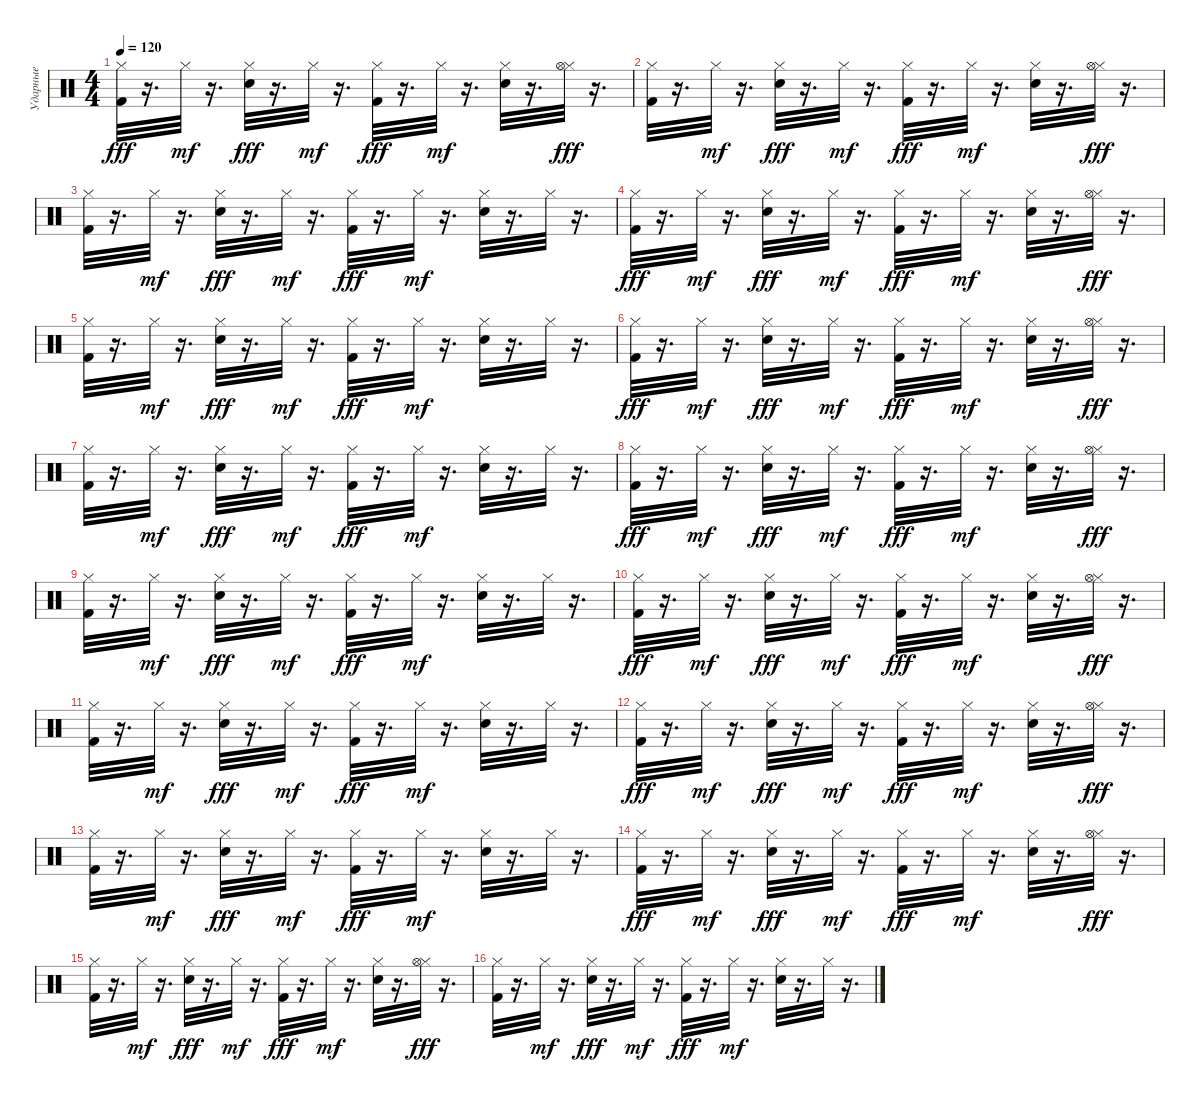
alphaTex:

\track ("Ударные" "Ударные") {instrument percussion}
\staff {score}
\articulation defaults
\ts (4 4)
\tempo 120
\clef neutral
\ks c
("Hi-Hat (closed)" "Kick (hit) 2").32{dy fff} r.16{d} "Hi-Hat (closed)".32{dy mf} r.16{d} ("Hi-Hat (closed)" "Snare (hit) 2").32{dy fff} r.16{d} "Hi-Hat (closed)".32{dy mf} r.16{d} ("Hi-Hat (closed)" "Kick (hit) 2").32{dy fff} r.16{d} "Hi-Hat (closed)".32{dy mf} r.16{d} ("Snare (hit) 2" "Hi-Hat (closed)").32 r.16{d} ("Hi-Hat (closed)" "Hi-Hat (open)").32{dy fff} r.16{d} |
("Hi-Hat (closed)" "Kick (hit) 2").32 r.16{d} "Hi-Hat (closed)".32{dy mf} r.16{d} ("Hi-Hat (closed)" "Snare (hit) 2").32{dy fff} r.16{d} "Hi-Hat (closed)".32{dy mf} r.16{d} ("Hi-Hat (closed)" "Kick (hit) 2").32{dy fff} r.16{d} "Hi-Hat (closed)".32{dy mf} r.16{d} ("Snare (hit) 2" "Hi-Hat (closed)").32 r.16{d} ("Hi-Hat (closed)" "Hi-Hat (open)").32{dy fff} r.16{d} |
("Hi-Hat (closed)" "Kick (hit) 2").32 r.16{d} "Hi-Hat (closed)".32{dy mf} r.16{d} ("Hi-Hat (closed)" "Snare (hit) 2").32{dy fff} r.16{d} "Hi-Hat (closed)".32{dy mf} r.16{d} ("Hi-Hat (closed)" "Kick (hit) 2").32{dy fff} r.16{d} "Hi-Hat (closed)".32{dy mf} r.16{d} ("Snare (hit) 2" "Hi-Hat (closed)").32 r.16{d} "Hi-Hat (closed)".32 r.16{d} |
("Hi-Hat (closed)" "Kick (hit) 2").32{dy fff} r.16{d} "Hi-Hat (closed)".32{dy mf} r.16{d} ("Hi-Hat (closed)" "Snare (hit) 2").32{dy fff} r.16{d} "Hi-Hat (closed)".32{dy mf} r.16{d} ("Hi-Hat (closed)" "Kick (hit) 2").32{dy fff} r.16{d} "Hi-Hat (closed)".32{dy mf} r.16{d} ("Snare (hit) 2" "Hi-Hat (closed)").32 r.16{d} ("Hi-Hat (closed)" "Hi-Hat (open)").32{dy fff} r.16{d} |
("Hi-Hat (closed)" "Kick (hit) 2").32 r.16{d} "Hi-Hat (closed)".32{dy mf} r.16{d} ("Hi-Hat (closed)" "Snare (hit) 2").32{dy fff} r.16{d} "Hi-Hat (closed)".32{dy mf} r.16{d} ("Hi-Hat (closed)" "Kick (hit) 2").32{dy fff} r.16{d} "Hi-Hat (closed)".32{dy mf} r.16{d} ("Snare (hit) 2" "Hi-Hat (closed)").32 r.16{d} "Hi-Hat (closed)".32 r.16{d} |
("Hi-Hat (closed)" "Kick (hit) 2").32{dy fff} r.16{d} "Hi-Hat (closed)".32{dy mf} r.16{d} ("Hi-Hat (closed)" "Snare (hit) 2").32{dy fff} r.16{d} "Hi-Hat (closed)".32{dy mf} r.16{d} ("Hi-Hat (closed)" "Kick (hit) 2").32{dy fff} r.16{d} "Hi-Hat (closed)".32{dy mf} r.16{d} ("Snare (hit) 2" "Hi-Hat (closed)").32 r.16{d} ("Hi-Hat (closed)" "Hi-Hat (open)").32{dy fff} r.16{d} |
("Hi-Hat (closed)" "Kick (hit) 2").32 r.16{d} "Hi-Hat (closed)".32{dy mf} r.16{d} ("Hi-Hat (closed)" "Snare (hit) 2").32{dy fff} r.16{d} "Hi-Hat (closed)".32{dy mf} r.16{d} ("Hi-Hat (closed)" "Kick (hit) 2").32{dy fff} r.16{d} "Hi-Hat (closed)".32{dy mf} r.16{d} ("Snare (hit) 2" "Hi-Hat (closed)").32 r.16{d} "Hi-Hat (closed)".32 r.16{d} |
("Hi-Hat (closed)" "Kick (hit) 2").32{dy fff} r.16{d} "Hi-Hat (closed)".32{dy mf} r.16{d} ("Hi-Hat (closed)" "Snare (hit) 2").32{dy fff} r.16{d} "Hi-Hat (closed)".32{dy mf} r.16{d} ("Hi-Hat (closed)" "Kick (hit) 2").32{dy fff} r.16{d} "Hi-Hat (closed)".32{dy mf} r.16{d} ("Snare (hit) 2" "Hi-Hat (closed)").32 r.16{d} ("Hi-Hat (closed)" "Hi-Hat (open)").32{dy fff} r.16{d} |
("Hi-Hat (closed)" "Kick (hit) 2").32 r.16{d} "Hi-Hat (closed)".32{dy mf} r.16{d} ("Hi-Hat (closed)" "Snare (hit) 2").32{dy fff} r.16{d} "Hi-Hat (closed)".32{dy mf} r.16{d} ("Hi-Hat (closed)" "Kick (hit) 2").32{dy fff} r.16{d} "Hi-Hat (closed)".32{dy mf} r.16{d} ("Snare (hit) 2" "Hi-Hat (closed)").32 r.16{d} "Hi-Hat (closed)".32 r.16{d} |
("Hi-Hat (closed)" "Kick (hit) 2").32{dy fff} r.16{d} "Hi-Hat (closed)".32{dy mf} r.16{d} ("Hi-Hat (closed)" "Snare (hit) 2").32{dy fff} r.16{d} "Hi-Hat (closed)".32{dy mf} r.16{d} ("Hi-Hat (closed)" "Kick (hit) 2").32{dy fff} r.16{d} "Hi-Hat (closed)".32{dy mf} r.16{d} ("Snare (hit) 2" "Hi-Hat (closed)").32 r.16{d} ("Hi-Hat (closed)" "Hi-Hat (open)").32{dy fff} r.16{d} |
("Hi-Hat (closed)" "Kick (hit) 2").32 r.16{d} "Hi-Hat (closed)".32{dy mf} r.16{d} ("Hi-Hat (closed)" "Snare (hit) 2").32{dy fff} r.16{d} "Hi-Hat (closed)".32{dy mf} r.16{d} ("Hi-Hat (closed)" "Kick (hit) 2").32{dy fff} r.16{d} "Hi-Hat (closed)".32{dy mf} r.16{d} ("Snare (hit) 2" "Hi-Hat (closed)").32 r.16{d} "Hi-Hat (closed)".32 r.16{d} |
("Hi-Hat (closed)" "Kick (hit) 2").32{dy fff} r.16{d} "Hi-Hat (closed)".32{dy mf} r.16{d} ("Hi-Hat (closed)" "Snare (hit) 2").32{dy fff} r.16{d} "Hi-Hat (closed)".32{dy mf} r.16{d} ("Hi-Hat (closed)" "Kick (hit) 2").32{dy fff} r.16{d} "Hi-Hat (closed)".32{dy mf} r.16{d} ("Snare (hit) 2" "Hi-Hat (closed)").32 r.16{d} ("Hi-Hat (closed)" "Hi-Hat (open)").32{dy fff} r.16{d} |
("Hi-Hat (closed)" "Kick (hit) 2").32 r.16{d} "Hi-Hat (closed)".32{dy mf} r.16{d} ("Hi-Hat (closed)" "Snare (hit) 2").32{dy fff} r.16{d} "Hi-Hat (closed)".32{dy mf} r.16{d} ("Hi-Hat (closed)" "Kick (hit) 2").32{dy fff} r.16{d} "Hi-Hat (closed)".32{dy mf} r.16{d} ("Snare (hit) 2" "Hi-Hat (closed)").32 r.16{d} "Hi-Hat (closed)".32 r.16{d} |
("Hi-Hat (closed)" "Kick (hit) 2").32{dy fff} r.16{d} "Hi-Hat (closed)".32{dy mf} r.16{d} ("Hi-Hat (closed)" "Snare (hit) 2").32{dy fff} r.16{d} "Hi-Hat (closed)".32{dy mf} r.16{d} ("Hi-Hat (closed)" "Kick (hit) 2").32{dy fff} r.16{d} "Hi-Hat (closed)".32{dy mf} r.16{d} ("Snare (hit) 2" "Hi-Hat (closed)").32 r.16{d} ("Hi-Hat (closed)" "Hi-Hat (open)").32{dy fff} r.16{d} |
("Hi-Hat (closed)" "Kick (hit) 2").32 r.16{d} "Hi-Hat (closed)".32{dy mf} r.16{d} ("Hi-Hat (closed)" "Snare (hit) 2").32{dy fff} r.16{d} "Hi-Hat (closed)".32{dy mf} r.16{d} ("Hi-Hat (closed)" "Kick (hit) 2").32{dy fff} r.16{d} "Hi-Hat (closed)".32{dy mf} r.16{d} ("Snare (hit) 2" "Hi-Hat (closed)").32 r.16{d} ("Hi-Hat (closed)" "Hi-Hat (open)").32{dy fff} r.16{d} |
("Hi-Hat (closed)" "Kick (hit) 2").32 r.16{d} "Hi-Hat (closed)".32{dy mf} r.16{d} ("Hi-Hat (closed)" "Snare (hit) 2").32{dy fff} r.16{d} "Hi-Hat (closed)".32{dy mf} r.16{d} ("Hi-Hat (closed)" "Kick (hit) 2").32{dy fff} r.16{d} "Hi-Hat (closed)".32{dy mf} r.16{d} ("Snare (hit) 2" "Hi-Hat (closed)").32 r.16{d} "Hi-Hat (closed)".32 r.16{d}
